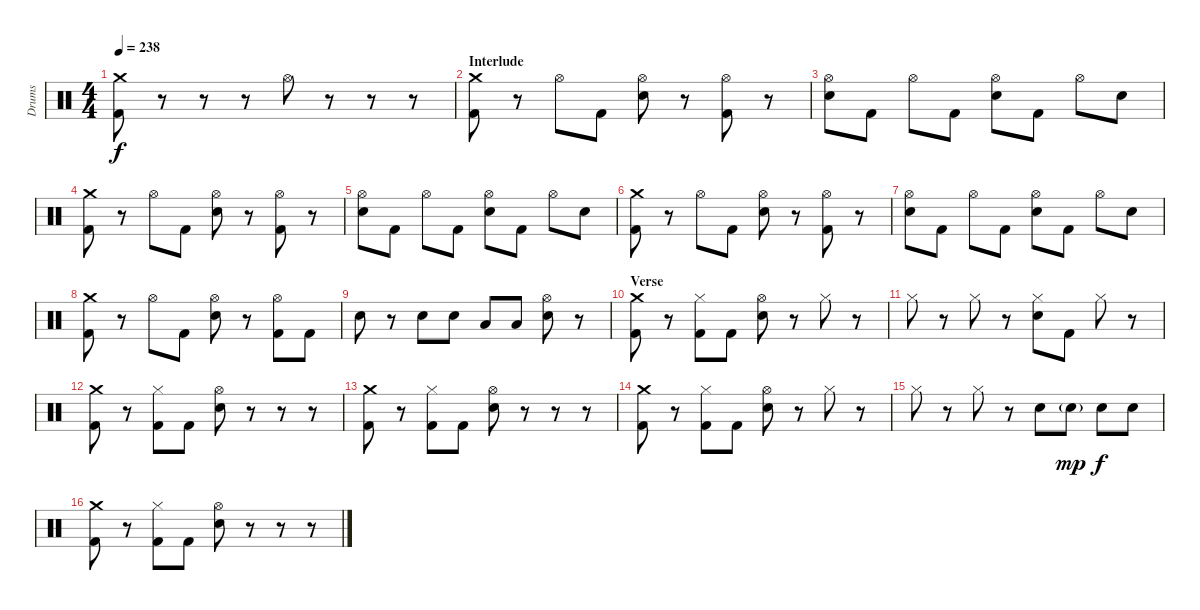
\track ("Drums" "Drums") {instrument percussion}
\staff {score}
\articulation defaults
\ts (4 4)
\tempo 238
\clef neutral
\ks c
("Crash medium (hit)" "Kick (hit) 2").8{dy f} r.8 r.8 r.8 "Hi-Hat (open)".8 r.8 r.8 r.8 |
\section ("" "Interlude")
("Crash medium (hit)" "Kick (hit) 2").8 r.8 "Hi-Hat (open)".8 "Kick (hit) 2".8 ("Hi-Hat (open)" "Electric Snare (hit)").8 r.8 ("Hi-Hat (open)" "Kick (hit) 2").8 r.8 |
("Hi-Hat (open)" "Electric Snare (hit)").8 "Kick (hit) 2".8 "Hi-Hat (open)".8 "Kick (hit) 2".8 ("Hi-Hat (open)" "Electric Snare (hit)").8 "Kick (hit) 2".8 "Hi-Hat (open)".8 "Electric Snare (hit)".8 |
("Crash medium (hit)" "Kick (hit) 2").8 r.8 "Hi-Hat (open)".8 "Kick (hit) 2".8 ("Hi-Hat (open)" "Electric Snare (hit)").8 r.8 ("Hi-Hat (open)" "Kick (hit) 2").8 r.8 |
("Hi-Hat (open)" "Electric Snare (hit)").8 "Kick (hit) 2".8 "Hi-Hat (open)".8 "Kick (hit) 2".8 ("Hi-Hat (open)" "Electric Snare (hit)").8 "Kick (hit) 2".8 "Hi-Hat (open)".8 "Electric Snare (hit)".8 |
("Crash medium (hit)" "Kick (hit) 2").8 r.8 "Hi-Hat (open)".8 "Kick (hit) 2".8 ("Hi-Hat (open)" "Electric Snare (hit)").8 r.8 ("Hi-Hat (open)" "Kick (hit) 2").8 r.8 |
("Hi-Hat (open)" "Electric Snare (hit)").8 "Kick (hit) 2".8 "Hi-Hat (open)".8 "Kick (hit) 2".8 ("Hi-Hat (open)" "Electric Snare (hit)").8 "Kick (hit) 2".8 "Hi-Hat (open)".8 "Electric Snare (hit)".8 |
("Crash medium (hit)" "Kick (hit) 2").8 r.8 "Hi-Hat (open)".8 "Kick (hit) 2".8 ("Hi-Hat (open)" "Electric Snare (hit)").8 r.8 ("Hi-Hat (open)" "Kick (hit) 2").8 "Kick (hit) 2".8 |
"Electric Snare (hit)".8 r.8 "Electric Snare (hit)".8 "Electric Snare (hit)".8 "Low Tom (hit)".8 "Low Tom (hit)".8 ("Hi-Hat (open)" "Electric Snare (hit)").8 r.8 |
\section ("" "Verse")
("Crash medium (hit)" "Kick (hit) 2").8 r.8 ("Hi-Hat (closed)" "Kick (hit) 2").8 "Kick (hit) 2".8 ("Hi-Hat (open)" "Electric Snare (hit)").8 r.8 "Hi-Hat (closed)".8 r.8 |
"Hi-Hat (closed)".8 r.8 "Hi-Hat (closed)".8 r.8 ("Hi-Hat (closed)" "Electric Snare (hit)").8 "Kick (hit) 2".8 "Hi-Hat (closed)".8 r.8 |
("Crash medium (hit)" "Kick (hit) 2").8 r.8 ("Hi-Hat (closed)" "Kick (hit) 2").8 "Kick (hit) 2".8 ("Hi-Hat (open)" "Electric Snare (hit)").8 r.8 r.8 r.8 |
("Crash medium (hit)" "Kick (hit) 2").8 r.8 ("Hi-Hat (closed)" "Kick (hit) 2").8 "Kick (hit) 2".8 ("Hi-Hat (open)" "Electric Snare (hit)").8 r.8 r.8 r.8 |
("Crash medium (hit)" "Kick (hit) 2").8 r.8 ("Hi-Hat (closed)" "Kick (hit) 2").8 "Kick (hit) 2".8 ("Hi-Hat (open)" "Electric Snare (hit)").8 r.8 "Hi-Hat (closed)".8 r.8 |
"Hi-Hat (closed)".8 r.8 "Hi-Hat (closed)".8 r.8 "Electric Snare (hit)".8 "Electric Snare (hit)"{g}.8{dy mp} "Electric Snare (hit)".8{dy f} "Electric Snare (hit)".8 |
("Crash medium (hit)" "Kick (hit) 2").8 r.8 ("Hi-Hat (closed)" "Kick (hit) 2").8 "Kick (hit) 2".8 ("Hi-Hat (open)" "Electric Snare (hit)").8 r.8 r.8 r.8
